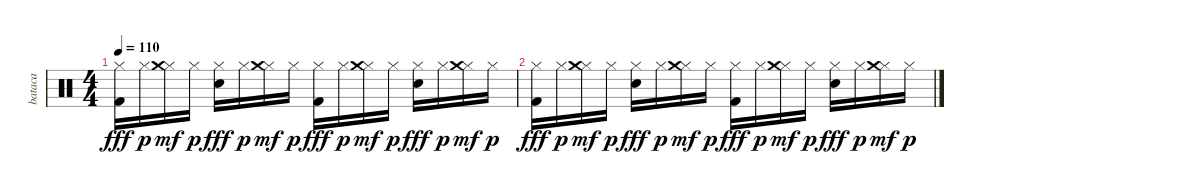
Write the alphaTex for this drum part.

\track ("bataca" "bataca") {instrument percussion}
\staff {score}
\articulation defaults
\ts (4 4)
\tempo 110
\clef neutral
\ks c
("Hi-Hat (closed)" "Kick (hit) 2").16{dy fff} "Hi-Hat (closed)".16{dy p} ("Hi-Hat (closed)" "Crash medium (hit)").16{dy mf} "Hi-Hat (closed)".16{dy p} ("Hi-Hat (closed)" "Electric Snare (hit)").16{dy fff} "Hi-Hat (closed)".16{dy p} ("Hi-Hat (closed)" "Crash medium (hit)").16{dy mf} "Hi-Hat (closed)".16{dy p} ("Hi-Hat (closed)" "Kick (hit) 2").16{dy fff} "Hi-Hat (closed)".16{dy p} ("Hi-Hat (closed)" "Crash medium (hit)").16{dy mf} "Hi-Hat (closed)".16{dy p} ("Hi-Hat (closed)" "Electric Snare (hit)").16{dy fff} "Hi-Hat (closed)".16{dy p} ("Hi-Hat (closed)" "Crash medium (hit)").16{dy mf} "Hi-Hat (closed)".16{dy p} |
("Hi-Hat (closed)" "Kick (hit) 2").16{dy fff} "Hi-Hat (closed)".16{dy p} ("Hi-Hat (closed)" "Crash medium (hit)").16{dy mf} "Hi-Hat (closed)".16{dy p} ("Hi-Hat (closed)" "Electric Snare (hit)").16{dy fff} "Hi-Hat (closed)".16{dy p} ("Hi-Hat (closed)" "Crash medium (hit)").16{dy mf} "Hi-Hat (closed)".16{dy p} ("Hi-Hat (closed)" "Kick (hit) 2").16{dy fff} "Hi-Hat (closed)".16{dy p} ("Hi-Hat (closed)" "Crash medium (hit)").16{dy mf} "Hi-Hat (closed)".16{dy p} ("Hi-Hat (closed)" "Electric Snare (hit)").16{dy fff} "Hi-Hat (closed)".16{dy p} ("Hi-Hat (closed)" "Crash medium (hit)").16{dy mf} "Hi-Hat (closed)".16{dy p}
